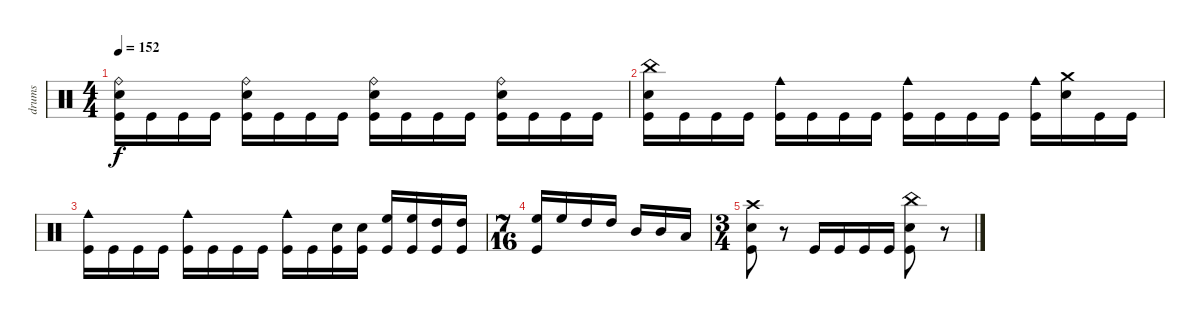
\track ("drums" "drums") {instrument percussion}
\staff {score}
\articulation defaults
\ts (4 4)
\tempo 152
\clef neutral
\ks c
("Kick (hit)" "Snare (hit) 2" "Ride (bell)").16{dy f} "Kick (hit)".16 "Kick (hit)".16 "Kick (hit)".16 ("Kick (hit)" "Snare (hit) 2" "Ride (bell)").16 "Kick (hit)".16 "Kick (hit)".16 "Kick (hit)".16 ("Kick (hit)" "Snare (hit) 2" "Ride (bell)").16 "Kick (hit)".16 "Kick (hit)".16 "Kick (hit)".16 ("Kick (hit)" "Snare (hit) 2" "Ride (bell)").16 "Kick (hit)".16 "Kick (hit)".16 "Kick (hit)".16 |
("Kick (hit)" "Snare (hit) 2" "China (hit)").16 "Kick (hit)".16 "Kick (hit)".16 "Kick (hit)".16 ("Kick (hit)" "Cowbell medium (hit)").16 "Kick (hit)".16 "Kick (hit)".16 "Kick (hit)".16 ("Kick (hit)" "Cowbell medium (hit)").16 "Kick (hit)".16 "Kick (hit)".16 "Kick (hit)".16 ("Kick (hit)" "Cowbell medium (hit)").16 ("Snare (hit) 2" "Crash medium (hit)").16 "Kick (hit)".16 "Kick (hit)".16 |
("Kick (hit)" "Cowbell medium (hit)").16 "Kick (hit)".16 "Kick (hit)".16 "Kick (hit)".16 ("Kick (hit)" "Cowbell medium (hit)").16 "Kick (hit)".16 "Kick (hit)".16 "Kick (hit)".16 ("Kick (hit)" "Cowbell medium (hit)").16 "Kick (hit)".16 ("Kick (hit)" "Snare (hit) 2").16 ("Kick (hit)" "Snare (hit) 2").16 ("Kick (hit)" "High Floor Tom (hit)").16 ("Kick (hit)" "High Floor Tom (hit)").16 ("Kick (hit)" "High Tom (hit)").16 ("Kick (hit)" "High Tom (hit)").16 |
\ts (7 16)
("Kick (hit)" "High Floor Tom (hit)").16 "High Floor Tom (hit)".16 "High Tom (hit)".16 "High Tom (hit)".16 "Mid Tom (hit)".16 "Mid Tom (hit)".16 "Low Tom (hit)".16 |
\ts (3 4)
("Kick (hit)" "Snare (hit) 2" "Crash high (hit)").8 r.8 "Kick (hit)".16 "Kick (hit)".16 "Kick (hit)".16 "Kick (hit)".16 ("Kick (hit)" "Snare (hit) 2" "China (hit)").8 r.8
